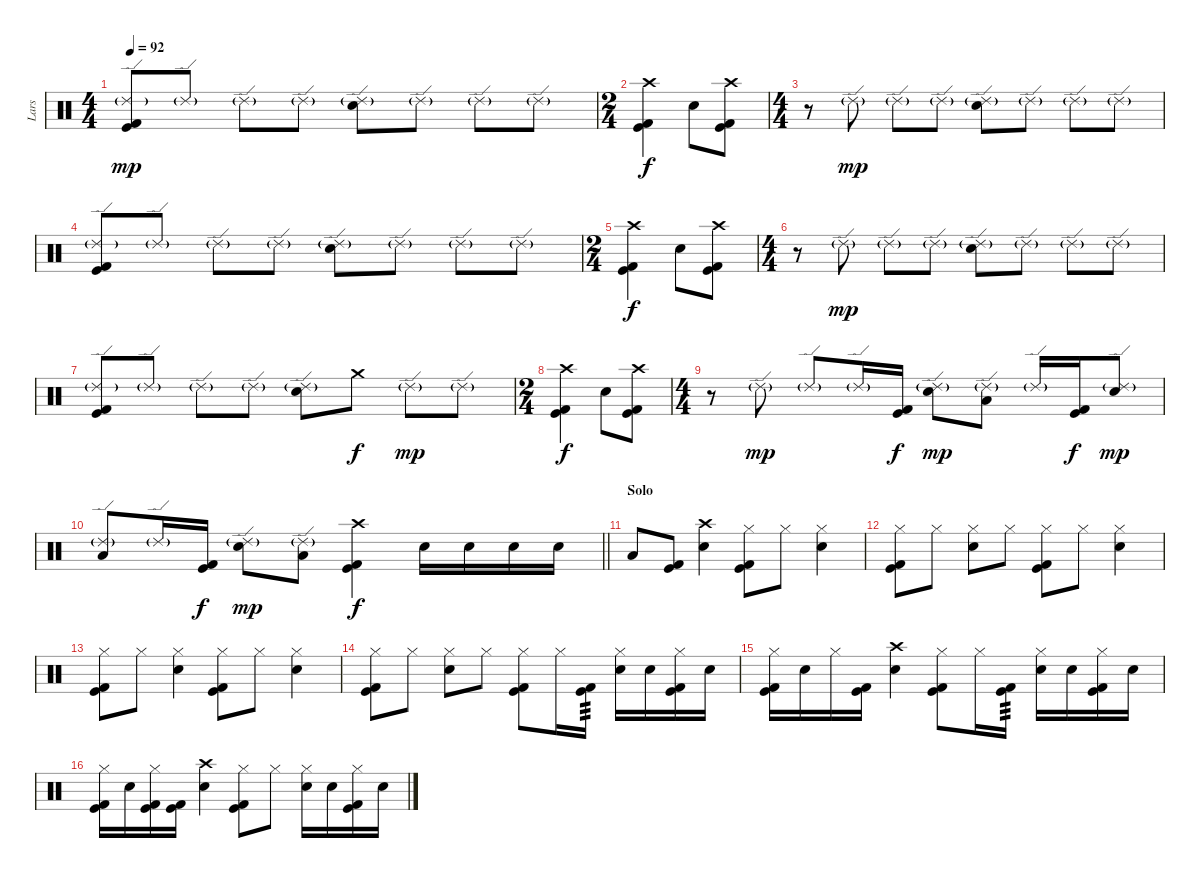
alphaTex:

\track ("Lars" "Lars") {instrument percussion}
\staff {score}
\articulation defaults
\ts (4 4)
\tempo 92
\clef neutral
\ks c
("Ride (edge) 2"{g} "Kick (hit)" "Kick (hit) 2").8{dy mp} "Ride (edge) 2"{g}.8 "Ride (edge) 2"{g}.8 "Ride (edge) 2"{g}.8 ("Ride (edge) 2"{g} "Electric Snare (hit)").8 "Ride (edge) 2"{g}.8 "Ride (edge) 2"{g}.8 "Ride (edge) 2"{g}.8 |
\ts (2 4)
("Crash high (hit)" "Kick (hit)" "Kick (hit) 2").4{dy f} "Electric Snare (hit)".8 ("Crash high (hit)" "Kick (hit)" "Kick (hit) 2").8 |
\ts (4 4)
r.8 "Ride (edge) 2"{g}.8{dy mp} "Ride (edge) 2"{g}.8 "Ride (edge) 2"{g}.8 ("Ride (edge) 2"{g} "Electric Snare (hit)").8 "Ride (edge) 2"{g}.8 "Ride (edge) 2"{g}.8 "Ride (edge) 2"{g}.8 |
("Ride (edge) 2"{g} "Kick (hit)" "Kick (hit) 2").8 "Ride (edge) 2"{g}.8 "Ride (edge) 2"{g}.8 "Ride (edge) 2"{g}.8 ("Ride (edge) 2"{g} "Electric Snare (hit)").8 "Ride (edge) 2"{g}.8 "Ride (edge) 2"{g}.8 "Ride (edge) 2"{g}.8 |
\ts (2 4)
("Crash high (hit)" "Kick (hit)" "Kick (hit) 2").4{dy f} "Electric Snare (hit)".8 ("Crash high (hit)" "Kick (hit)" "Kick (hit) 2").8 |
\ts (4 4)
r.8 "Ride (edge) 2"{g}.8{dy mp} "Ride (edge) 2"{g}.8 "Ride (edge) 2"{g}.8 ("Ride (edge) 2"{g} "Electric Snare (hit)").8 "Ride (edge) 2"{g}.8 "Ride (edge) 2"{g}.8 "Ride (edge) 2"{g}.8 |
("Ride (edge) 2"{g} "Kick (hit)" "Kick (hit) 2").8 "Ride (edge) 2"{g}.8 "Ride (edge) 2"{g}.8 "Ride (edge) 2"{g}.8 ("Ride (edge) 2"{g} "Electric Snare (hit)").8 "Crash medium (hit)".8{dy f} "Ride (edge) 2"{g}.8{dy mp} "Ride (edge) 2"{g}.8 |
\ts (2 4)
("Crash high (hit)" "Kick (hit)" "Kick (hit) 2").4{dy f} "Electric Snare (hit)".8 ("Crash high (hit)" "Kick (hit)" "Kick (hit) 2").8 |
\ts (4 4)
r.8 "Ride (edge) 2"{g}.8{dy mp} "Ride (edge) 2"{g}.8 "Ride (edge) 2"{g}.16 ("Kick (hit)" "Kick (hit) 2").16{dy f} ("Ride (edge) 2"{g} "Electric Snare (hit)").8{dy mp} ("Ride (edge) 2"{g} "Low Tom (hit)").8 "Ride (edge) 2"{g}.16 ("Kick (hit)" "Kick (hit) 2").16{dy f} ("Ride (edge) 2"{g} "Electric Snare (hit)").8{dy mp} |
\barLineRight lightlight
("Ride (edge) 2"{g} "Low Tom (hit)").8 "Ride (edge) 2"{g}.16 ("Kick (hit)" "Kick (hit) 2").16{dy f} ("Ride (edge) 2"{g} "Electric Snare (hit)").8{dy mp} ("Ride (edge) 2"{g} "Low Tom (hit)").8 ("Crash high (hit)" "Kick (hit)" "Kick (hit) 2").4{dy f} "Electric Snare (hit)".16 "Electric Snare (hit)".16 "Electric Snare (hit)".16 "Electric Snare (hit)".16 |
\section ("" "Solo")
"Low Tom (hit)".8 ("Kick (hit)" "Kick (hit) 2").8 ("Crash high (hit)" "Electric Snare (hit)").4 ("Hi-Hat (closed)" "Kick (hit)" "Kick (hit) 2").8 "Hi-Hat (closed)".8 ("Hi-Hat (closed)" "Electric Snare (hit)").4 |
("Hi-Hat (closed)" "Kick (hit)" "Kick (hit) 2").8 "Hi-Hat (closed)".8 ("Hi-Hat (closed)" "Electric Snare (hit)").8 "Hi-Hat (closed)".8 ("Hi-Hat (closed)" "Kick (hit)" "Kick (hit) 2").8 "Hi-Hat (closed)".8 ("Hi-Hat (closed)" "Electric Snare (hit)").4 |
("Hi-Hat (closed)" "Kick (hit)" "Kick (hit) 2").8 "Hi-Hat (closed)".8 ("Hi-Hat (closed)" "Electric Snare (hit)").4 ("Hi-Hat (closed)" "Kick (hit)" "Kick (hit) 2").8 "Hi-Hat (closed)".8 ("Hi-Hat (closed)" "Electric Snare (hit)").4 |
("Hi-Hat (closed)" "Kick (hit)" "Kick (hit) 2").8 "Hi-Hat (closed)".8 ("Hi-Hat (closed)" "Electric Snare (hit)").8 "Hi-Hat (closed)".8 ("Hi-Hat (closed)" "Kick (hit)" "Kick (hit) 2").8 "Hi-Hat (closed)".16 ("Kick (hit)" "Kick (hit) 2").16{tp 3} ("Hi-Hat (closed)" "Electric Snare (hit)").16 "Electric Snare (hit)".16 ("Hi-Hat (closed)" "Kick (hit)" "Kick (hit) 2").16 "Electric Snare (hit)".16 |
("Hi-Hat (closed)" "Kick (hit)" "Kick (hit) 2").16 "Electric Snare (hit)".16 "Hi-Hat (closed)".16 ("Kick (hit)" "Kick (hit) 2").16 ("Crash high (hit)" "Electric Snare (hit)").4 ("Hi-Hat (closed)" "Kick (hit)" "Kick (hit) 2").8 "Hi-Hat (closed)".16 ("Kick (hit)" "Kick (hit) 2").16{tp 3} ("Hi-Hat (closed)" "Electric Snare (hit)").16 "Electric Snare (hit)".16 ("Hi-Hat (closed)" "Kick (hit)" "Kick (hit) 2").16 "Electric Snare (hit)".16 |
("Hi-Hat (closed)" "Kick (hit)" "Kick (hit) 2").16 "Electric Snare (hit)".16 ("Hi-Hat (closed)" "Kick (hit)" "Kick (hit) 2").16 ("Kick (hit)" "Kick (hit) 2").16 ("Crash high (hit)" "Electric Snare (hit)").4 ("Hi-Hat (closed)" "Kick (hit)" "Kick (hit) 2").8 "Hi-Hat (closed)".8 ("Hi-Hat (closed)" "Electric Snare (hit)").16 "Electric Snare (hit)".16 ("Hi-Hat (closed)" "Kick (hit)" "Kick (hit) 2").16 "Electric Snare (hit)".16
